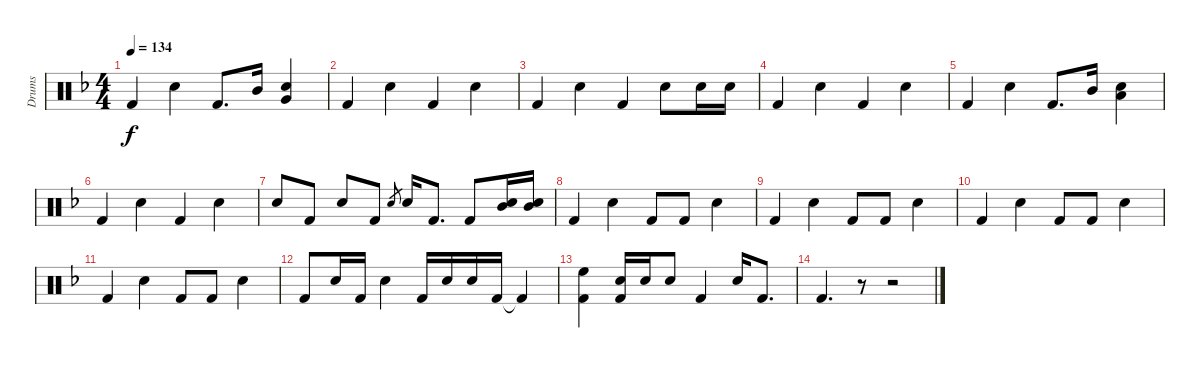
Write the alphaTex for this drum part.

\track ("Drums" "Drums") {instrument percussion}
\staff {score}
\articulation defaults
\ts (4 4)
\tempo 134
\clef neutral
\ks f "Kick (hit) 2".4{dy f} "Snare (hit) 2".4 "Kick (hit) 2".8{d} "Mid Tom (hit)".16
("Snare (hit) 2" "Very Low Tom (hit)").4 |
"Kick (hit) 2".4 "Snare (hit) 2".4 "Kick (hit) 2".4 "Snare (hit) 2".4 |
"Kick (hit) 2".4 "Snare (hit) 2".4 "Kick (hit) 2".4 "Snare (hit) 2".8 "Snare (hit) 2".16 "Snare (hit) 2".16 |
"Kick (hit) 2".4 "Snare (hit) 2".4 "Kick (hit) 2".4 "Snare (hit) 2".4 |
"Kick (hit) 2".4 "Snare (hit) 2".4 "Kick (hit) 2".8{d} "Mid Tom (hit)".16 ("Snare (hit) 2" "Low Floor Tom (hit)").4 |
"Kick (hit) 2".4 "Snare (hit) 2".4 "Kick (hit) 2".4 "Snare (hit) 2".4 |
"Snare (hit) 2".8 "Kick (hit) 2".8 "Snare (hit) 2".8 "Kick (hit) 2".8 "Snare (hit) 2".8{gr} "Snare (hit) 2".16 "Kick (hit) 2".8{d} "Kick (hit) 2".8 ("Snare (hit) 2" "Mid Tom (hit)").16 ("Snare (hit) 2" "Mid Tom (hit)").16 |
"Kick (hit) 2".4 "Snare (hit) 2".4 "Kick (hit) 2".8 "Kick (hit) 2".8 "Snare (hit) 2".4 |
"Kick (hit) 2".4 "Snare (hit) 2".4 "Kick (hit) 2".8 "Kick (hit) 2".8 "Snare (hit) 2".4 |
"Kick (hit) 2".4 "Snare (hit) 2".4 "Kick (hit) 2".8 "Kick (hit) 2".8 "Snare (hit) 2".4 |
"Kick (hit) 2".4 "Snare (hit) 2".4 "Kick (hit) 2".8 "Kick (hit) 2".8 "Snare (hit) 2".4 |
"Kick (hit) 2".8 "Snare (hit) 2".16 "Kick (hit) 2".16 "Snare (hit) 2".4 "Kick (hit) 2".16 "Snare (hit) 2".16 "Snare (hit) 2".16 "Kick (hit) 2".16 "Kick (hit) 2"{t}.4 |
("High Floor Tom (hit)" "Kick (hit) 2").4 ("Snare (hit) 2" "Kick (hit) 2").16 "Snare (hit) 2".16 "Snare (hit) 2".8 "Kick (hit) 2".4 "Snare (hit) 2".16 "Kick (hit) 2".8{d} |
"Kick (hit) 2".4{d} r.8 r.2
